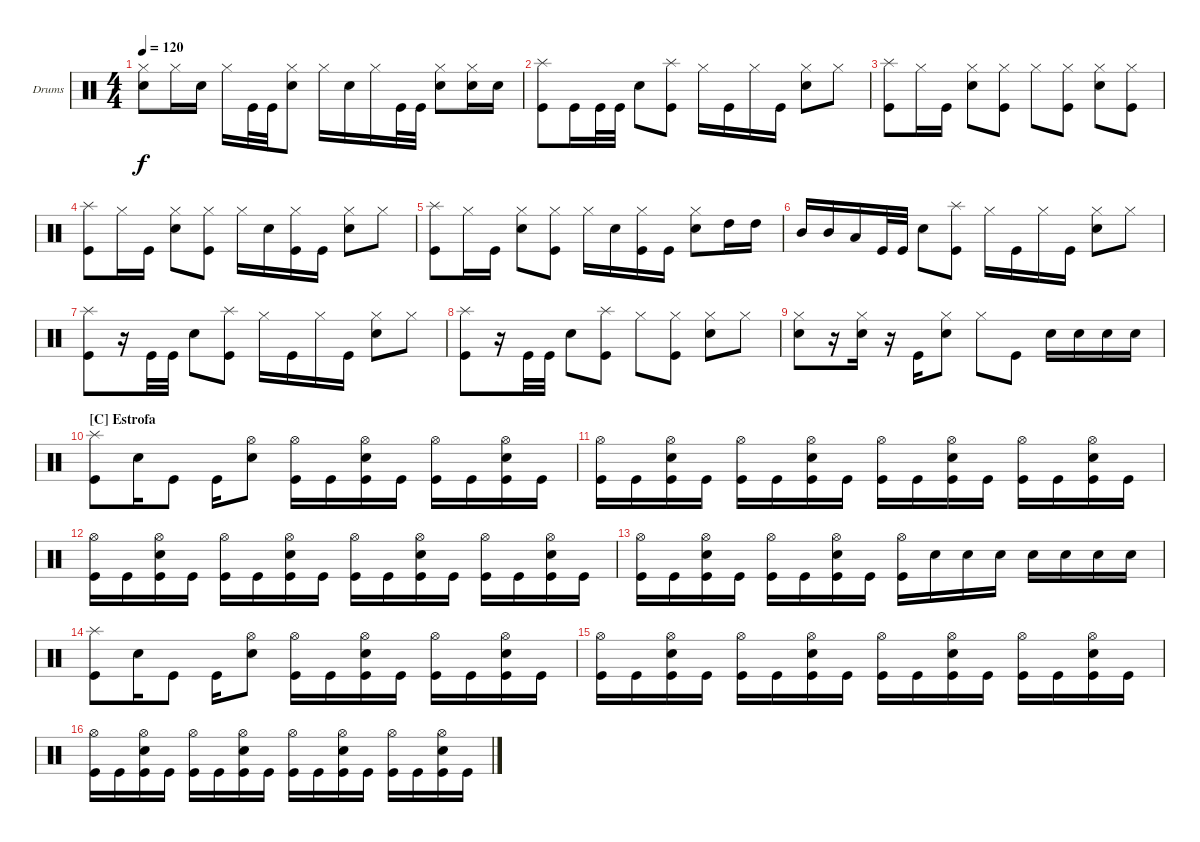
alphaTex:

\bracketExtendMode groupsimilarinstruments
\firstSystemTrackNameOrientation horizontal
\otherSystemsTrackNameOrientation horizontal
\track ("Drumkit" "Drums") {instrument percussion}
\staff {score}
\articulation defaults
\ts (4 4)
\tempo 120
\clef neutral
\ks c
("Hi-Hat (closed)" "Snare (hit) 2").8{dy f} "Hi-Hat (closed)".16 "Snare (hit) 2".16 "Hi-Hat (closed)".16 "Kick (hit)".32 "Kick (hit)".32 ("Hi-Hat (closed)" "Snare (hit) 2").8 "Hi-Hat (closed)".16 "Snare (hit) 2".16 "Hi-Hat (closed)".16 "Kick (hit)".32 "Kick (hit)".32 ("Hi-Hat (closed)" "Snare (hit) 2").8 ("Hi-Hat (closed)" "Snare (hit) 2").16 "Snare (hit) 2".16 |
("Kick (hit)" "Splash (hit)").8 "Kick (hit)".16 "Kick (hit)".32 "Kick (hit)".32 "Snare (hit) 2".8 ("Kick (hit)" "Splash (hit)").8 "Hi-Hat (closed)".16 "Kick (hit)".16 "Hi-Hat (closed)".16 "Kick (hit)".16 ("Hi-Hat (closed)" "Snare (hit) 2").8 "Hi-Hat (closed)".8 |
("Kick (hit)" "Splash (hit)").8 "Hi-Hat (closed)".16 "Kick (hit)".16 ("Hi-Hat (closed)" "Snare (hit) 2").8 ("Hi-Hat (closed)" "Kick (hit)").8 "Hi-Hat (closed)".8 ("Hi-Hat (closed)" "Kick (hit)").8 ("Hi-Hat (closed)" "Snare (hit) 2").8 ("Hi-Hat (closed)" "Kick (hit)").8 |
("Kick (hit)" "Splash (hit)").8 "Hi-Hat (closed)".16 "Kick (hit)".16 ("Hi-Hat (closed)" "Snare (hit) 2").8 ("Hi-Hat (closed)" "Kick (hit)").8 "Hi-Hat (closed)".16 "Snare (hit) 2".16 ("Hi-Hat (closed)" "Kick (hit)").16 "Kick (hit)".16 ("Hi-Hat (closed)" "Snare (hit) 2").8 "Hi-Hat (closed)".8 |
("Kick (hit)" "Splash (hit)").8 "Hi-Hat (closed)".16 "Kick (hit)".16 ("Hi-Hat (closed)" "Snare (hit) 2").8 ("Hi-Hat (closed)" "Kick (hit)").8 "Hi-Hat (closed)".16 "Snare (hit) 2".16 ("Hi-Hat (closed)" "Kick (hit)").16 "Kick (hit)".16 ("Hi-Hat (closed)" "Snare (hit) 2").8 "High Tom (hit)".16 "High Tom (hit)".16 |
"Mid Tom (hit)".16 "Mid Tom (hit)".16 "Low Tom (hit)".16 "Kick (hit)".32 "Kick (hit)".32 "Snare (hit) 2".8 ("Kick (hit)" "Splash (hit)").8 "Hi-Hat (closed)".16 "Kick (hit)".16 "Hi-Hat (closed)".16 "Kick (hit)".16 ("Hi-Hat (closed)" "Snare (hit) 2").8 "Hi-Hat (closed)".8 |
("Kick (hit)" "Splash (hit)").8 r.16 "Kick (hit)".32 "Kick (hit)".32 "Snare (hit) 2".8 ("Kick (hit)" "Splash (hit)").8 "Hi-Hat (closed)".16 "Kick (hit)".16 "Hi-Hat (closed)".16 "Kick (hit)".16 ("Hi-Hat (closed)" "Snare (hit) 2").8 "Hi-Hat (closed)".8 |
("Kick (hit)" "Splash (hit)").8 r.16 "Kick (hit)".32 "Kick (hit)".32 "Snare (hit) 2".8 ("Kick (hit)" "Splash (hit)").8 "Hi-Hat (closed)".8 ("Hi-Hat (closed)" "Kick (hit)").8 ("Hi-Hat (closed)" "Snare (hit) 2").8 "Hi-Hat (closed)".8 |
("Hi-Hat (closed)" "Snare (hit) 2").8 r.16 ("Snare (hit) 2" "Hi-Hat (closed)").16 r.16 "Kick (hit)".16 ("Hi-Hat (closed)" "Snare (hit) 2").8 "Hi-Hat (closed)".8 "Kick (hit)".8 "Snare (hit) 2".16 "Snare (hit) 2".16 "Snare (hit) 2".16 "Snare (hit) 2".16 |
\section ("C" "Estrofa")
("Kick (hit)" "Splash (hit)").8 "Snare (hit) 2".16 "Kick (hit)".8 "Kick (hit)".16 ("Snare (hit) 2" "Hi-Hat (open)").8 ("Kick (hit)" "Hi-Hat (open)").16 "Kick (hit)".16 ("Kick (hit)" "Snare (hit) 2" "Hi-Hat (open)").16 "Kick (hit)".16 ("Kick (hit)" "Hi-Hat (open)").16 "Kick (hit)".16 ("Kick (hit)" "Snare (hit) 2" "Hi-Hat (open)").16 "Kick (hit)".16 |
("Kick (hit)" "Hi-Hat (open)").16 "Kick (hit)".16 ("Kick (hit)" "Snare (hit) 2" "Hi-Hat (open)").16 "Kick (hit)".16 ("Kick (hit)" "Hi-Hat (open)").16 "Kick (hit)".16 ("Kick (hit)" "Snare (hit) 2" "Hi-Hat (open)").16 "Kick (hit)".16 ("Kick (hit)" "Hi-Hat (open)").16 "Kick (hit)".16 ("Kick (hit)" "Snare (hit) 2" "Hi-Hat (open)").16 "Kick (hit)".16 ("Kick (hit)" "Hi-Hat (open)").16 "Kick (hit)".16 ("Kick (hit)" "Snare (hit) 2" "Hi-Hat (open)").16 "Kick (hit)".16 |
("Kick (hit)" "Hi-Hat (open)").16 "Kick (hit)".16 ("Kick (hit)" "Snare (hit) 2" "Hi-Hat (open)").16 "Kick (hit)".16 ("Kick (hit)" "Hi-Hat (open)").16 "Kick (hit)".16 ("Kick (hit)" "Snare (hit) 2" "Hi-Hat (open)").16 "Kick (hit)".16 ("Kick (hit)" "Hi-Hat (open)").16 "Kick (hit)".16 ("Kick (hit)" "Snare (hit) 2" "Hi-Hat (open)").16 "Kick (hit)".16 ("Kick (hit)" "Hi-Hat (open)").16 "Kick (hit)".16 ("Kick (hit)" "Snare (hit) 2" "Hi-Hat (open)").16 "Kick (hit)".16 |
("Kick (hit)" "Hi-Hat (open)").16 "Kick (hit)".16 ("Kick (hit)" "Snare (hit) 2" "Hi-Hat (open)").16 "Kick (hit)".16 ("Kick (hit)" "Hi-Hat (open)").16 "Kick (hit)".16 ("Kick (hit)" "Snare (hit) 2" "Hi-Hat (open)").16 "Kick (hit)".16 ("Kick (hit)" "Hi-Hat (open)").16 "Snare (hit) 2".16 "Snare (hit) 2".16 "Snare (hit) 2".16 "Snare (hit) 2".16 "Snare (hit) 2".16 "Snare (hit) 2".16 "Snare (hit) 2".16 |
("Kick (hit)" "Splash (hit)").8 "Snare (hit) 2".16 "Kick (hit)".8 "Kick (hit)".16 ("Snare (hit) 2" "Hi-Hat (open)").8 ("Kick (hit)" "Hi-Hat (open)").16 "Kick (hit)".16 ("Kick (hit)" "Snare (hit) 2" "Hi-Hat (open)").16 "Kick (hit)".16 ("Kick (hit)" "Hi-Hat (open)").16 "Kick (hit)".16 ("Kick (hit)" "Snare (hit) 2" "Hi-Hat (open)").16 "Kick (hit)".16 |
("Kick (hit)" "Hi-Hat (open)").16 "Kick (hit)".16 ("Kick (hit)" "Snare (hit) 2" "Hi-Hat (open)").16 "Kick (hit)".16 ("Kick (hit)" "Hi-Hat (open)").16 "Kick (hit)".16 ("Kick (hit)" "Snare (hit) 2" "Hi-Hat (open)").16 "Kick (hit)".16 ("Kick (hit)" "Hi-Hat (open)").16 "Kick (hit)".16 ("Kick (hit)" "Snare (hit) 2" "Hi-Hat (open)").16 "Kick (hit)".16 ("Kick (hit)" "Hi-Hat (open)").16 "Kick (hit)".16 ("Kick (hit)" "Snare (hit) 2" "Hi-Hat (open)").16 "Kick (hit)".16 |
("Kick (hit)" "Hi-Hat (open)").16 "Kick (hit)".16 ("Kick (hit)" "Snare (hit) 2" "Hi-Hat (open)").16 "Kick (hit)".16 ("Kick (hit)" "Hi-Hat (open)").16 "Kick (hit)".16 ("Kick (hit)" "Snare (hit) 2" "Hi-Hat (open)").16 "Kick (hit)".16 ("Kick (hit)" "Hi-Hat (open)").16 "Kick (hit)".16 ("Kick (hit)" "Snare (hit) 2" "Hi-Hat (open)").16 "Kick (hit)".16 ("Kick (hit)" "Hi-Hat (open)").16 "Kick (hit)".16 ("Kick (hit)" "Snare (hit) 2" "Hi-Hat (open)").16 "Kick (hit)".16
